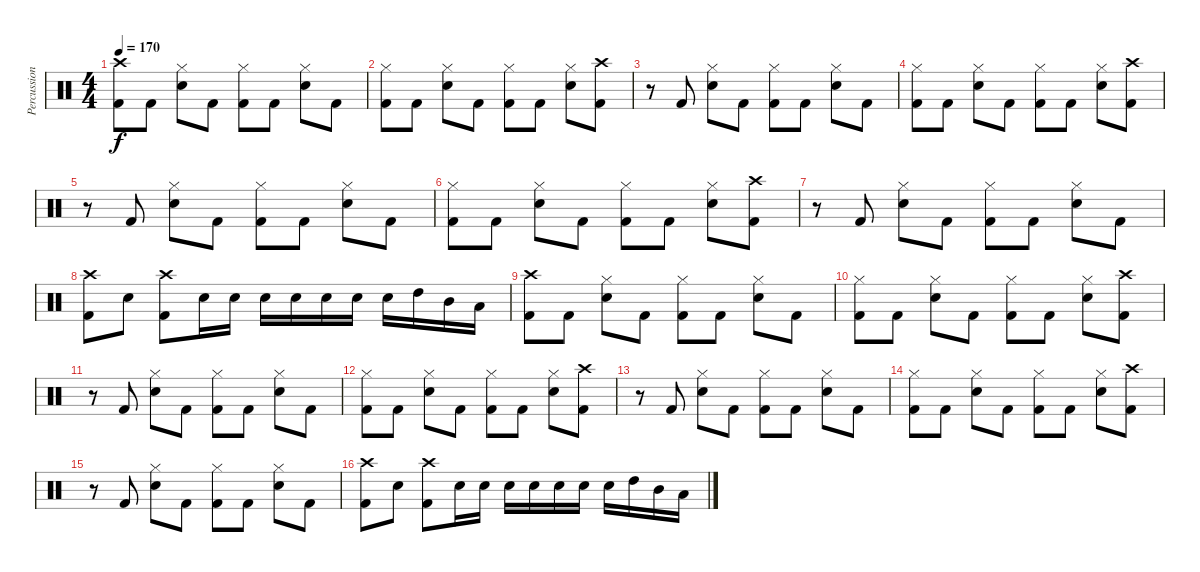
\track ("Percussion" "Percussion") {instrument percussion}
\staff {score}
\articulation defaults
\ts (4 4)
\tempo 170
\clef neutral
\ks c
("Crash high (hit)" "Kick (hit) 2").8{dy f} "Kick (hit) 2".8 ("Hi-Hat (closed)" "Electric Snare (hit)").8 "Kick (hit) 2".8 ("Hi-Hat (closed)" "Kick (hit) 2").8 "Kick (hit) 2".8 ("Hi-Hat (closed)" "Electric Snare (hit)").8 "Kick (hit) 2".8 |
("Hi-Hat (closed)" "Kick (hit) 2").8 "Kick (hit) 2".8 ("Hi-Hat (closed)" "Electric Snare (hit)").8 "Kick (hit) 2".8 ("Hi-Hat (closed)" "Kick (hit) 2").8 "Kick (hit) 2".8 ("Hi-Hat (closed)" "Electric Snare (hit)").8 ("Crash high (hit)" "Kick (hit) 2").8 |
r.8 "Kick (hit) 2".8 ("Hi-Hat (closed)" "Electric Snare (hit)").8 "Kick (hit) 2".8 ("Hi-Hat (closed)" "Kick (hit) 2").8 "Kick (hit) 2".8 ("Hi-Hat (closed)" "Electric Snare (hit)").8 "Kick (hit) 2".8 |
("Hi-Hat (closed)" "Kick (hit) 2").8 "Kick (hit) 2".8 ("Hi-Hat (closed)" "Electric Snare (hit)").8 "Kick (hit) 2".8 ("Hi-Hat (closed)" "Kick (hit) 2").8 "Kick (hit) 2".8 ("Hi-Hat (closed)" "Electric Snare (hit)").8 ("Crash high (hit)" "Kick (hit) 2").8 |
r.8 "Kick (hit) 2".8 ("Hi-Hat (closed)" "Electric Snare (hit)").8 "Kick (hit) 2".8 ("Hi-Hat (closed)" "Kick (hit) 2").8 "Kick (hit) 2".8 ("Hi-Hat (closed)" "Electric Snare (hit)").8 "Kick (hit) 2".8 |
("Hi-Hat (closed)" "Kick (hit) 2").8 "Kick (hit) 2".8 ("Hi-Hat (closed)" "Electric Snare (hit)").8 "Kick (hit) 2".8 ("Hi-Hat (closed)" "Kick (hit) 2").8 "Kick (hit) 2".8 ("Hi-Hat (closed)" "Electric Snare (hit)").8 ("Crash high (hit)" "Kick (hit) 2").8 |
r.8 "Kick (hit) 2".8 ("Hi-Hat (closed)" "Electric Snare (hit)").8 "Kick (hit) 2".8 ("Hi-Hat (closed)" "Kick (hit) 2").8 "Kick (hit) 2".8 ("Hi-Hat (closed)" "Electric Snare (hit)").8 "Kick (hit) 2".8 |
("Crash high (hit)" "Kick (hit) 2").8 "Electric Snare (hit)".8 ("Crash high (hit)" "Kick (hit) 2").8 "Electric Snare (hit)".16 "Electric Snare (hit)".16 "Electric Snare (hit)".16 "Electric Snare (hit)".16 "Electric Snare (hit)".16 "Electric Snare (hit)".16 "Electric Snare (hit)".16 "High Tom (hit)".16 "Mid Tom (hit)".16 "Low Tom (hit)".16 |
("Crash high (hit)" "Kick (hit) 2").8 "Kick (hit) 2".8 ("Hi-Hat (closed)" "Electric Snare (hit)").8 "Kick (hit) 2".8 ("Hi-Hat (closed)" "Kick (hit) 2").8 "Kick (hit) 2".8 ("Hi-Hat (closed)" "Electric Snare (hit)").8 "Kick (hit) 2".8 |
("Hi-Hat (closed)" "Kick (hit) 2").8 "Kick (hit) 2".8 ("Hi-Hat (closed)" "Electric Snare (hit)").8 "Kick (hit) 2".8 ("Hi-Hat (closed)" "Kick (hit) 2").8 "Kick (hit) 2".8 ("Hi-Hat (closed)" "Electric Snare (hit)").8 ("Crash high (hit)" "Kick (hit) 2").8 |
r.8 "Kick (hit) 2".8 ("Hi-Hat (closed)" "Electric Snare (hit)").8 "Kick (hit) 2".8 ("Hi-Hat (closed)" "Kick (hit) 2").8 "Kick (hit) 2".8 ("Hi-Hat (closed)" "Electric Snare (hit)").8 "Kick (hit) 2".8 |
("Hi-Hat (closed)" "Kick (hit) 2").8 "Kick (hit) 2".8 ("Hi-Hat (closed)" "Electric Snare (hit)").8 "Kick (hit) 2".8 ("Hi-Hat (closed)" "Kick (hit) 2").8 "Kick (hit) 2".8 ("Hi-Hat (closed)" "Electric Snare (hit)").8 ("Crash high (hit)" "Kick (hit) 2").8 |
r.8 "Kick (hit) 2".8 ("Hi-Hat (closed)" "Electric Snare (hit)").8 "Kick (hit) 2".8 ("Hi-Hat (closed)" "Kick (hit) 2").8 "Kick (hit) 2".8 ("Hi-Hat (closed)" "Electric Snare (hit)").8 "Kick (hit) 2".8 |
("Hi-Hat (closed)" "Kick (hit) 2").8 "Kick (hit) 2".8 ("Hi-Hat (closed)" "Electric Snare (hit)").8 "Kick (hit) 2".8 ("Hi-Hat (closed)" "Kick (hit) 2").8 "Kick (hit) 2".8 ("Hi-Hat (closed)" "Electric Snare (hit)").8 ("Crash high (hit)" "Kick (hit) 2").8 |
r.8 "Kick (hit) 2".8 ("Hi-Hat (closed)" "Electric Snare (hit)").8 "Kick (hit) 2".8 ("Hi-Hat (closed)" "Kick (hit) 2").8 "Kick (hit) 2".8 ("Hi-Hat (closed)" "Electric Snare (hit)").8 "Kick (hit) 2".8 |
("Crash high (hit)" "Kick (hit) 2").8 "Electric Snare (hit)".8 ("Crash high (hit)" "Kick (hit) 2").8 "Electric Snare (hit)".16 "Electric Snare (hit)".16 "Electric Snare (hit)".16 "Electric Snare (hit)".16 "Electric Snare (hit)".16 "Electric Snare (hit)".16 "Electric Snare (hit)".16 "High Tom (hit)".16 "Mid Tom (hit)".16 "Low Tom (hit)".16
